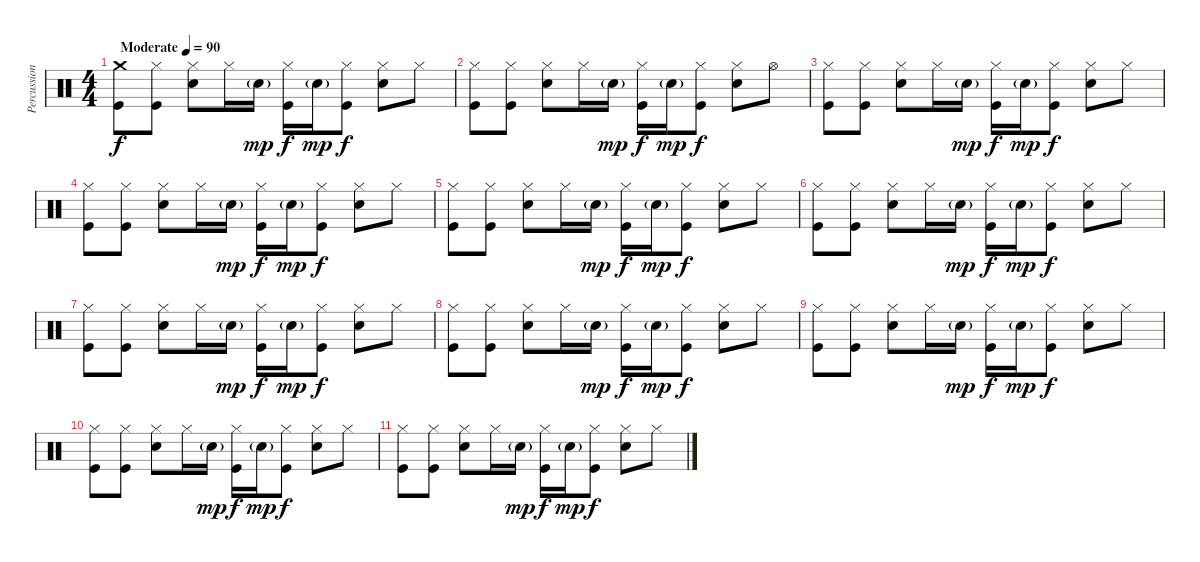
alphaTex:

\track ("Percussioni" "Percussion") {instrument percussion}
\staff {score}
\articulation defaults
\ts (4 4)
\tempo (90 "Moderate")
\clef neutral
\ks c
("Crash medium (hit)" "Kick (hit)").8{dy f} ("Hi-Hat (closed)" "Kick (hit)").8 ("Hi-Hat (closed)" "Electric Snare (hit)").8 "Hi-Hat (closed)".16 "Electric Snare (hit)"{g}.16{dy mp} ("Hi-Hat (closed)" "Kick (hit)").16{dy f} "Electric Snare (hit)"{g}.16{dy mp} ("Hi-Hat (closed)" "Kick (hit)").8{dy f} ("Hi-Hat (closed)" "Electric Snare (hit)").8 "Hi-Hat (closed)".8 |
("Hi-Hat (closed)" "Kick (hit)").8 ("Hi-Hat (closed)" "Kick (hit)").8 ("Hi-Hat (closed)" "Electric Snare (hit)").8 "Hi-Hat (closed)".16 "Electric Snare (hit)"{g}.16{dy mp} ("Hi-Hat (closed)" "Kick (hit)").16{dy f} "Electric Snare (hit)"{g}.16{dy mp} ("Hi-Hat (closed)" "Kick (hit)").8{dy f} ("Hi-Hat (closed)" "Electric Snare (hit)").8 "Hi-Hat (open)".8 |
("Hi-Hat (closed)" "Kick (hit)").8 ("Hi-Hat (closed)" "Kick (hit)").8 ("Hi-Hat (closed)" "Electric Snare (hit)").8 "Hi-Hat (closed)".16 "Electric Snare (hit)"{g}.16{dy mp} ("Hi-Hat (closed)" "Kick (hit)").16{dy f} "Electric Snare (hit)"{g}.16{dy mp} ("Hi-Hat (closed)" "Kick (hit)").8{dy f} ("Hi-Hat (closed)" "Electric Snare (hit)").8 "Hi-Hat (closed)".8 |
("Hi-Hat (closed)" "Kick (hit)").8 ("Hi-Hat (closed)" "Kick (hit)").8 ("Hi-Hat (closed)" "Electric Snare (hit)").8 "Hi-Hat (closed)".16 "Electric Snare (hit)"{g}.16{dy mp} ("Hi-Hat (closed)" "Kick (hit)").16{dy f} "Electric Snare (hit)"{g}.16{dy mp} ("Hi-Hat (closed)" "Kick (hit)").8{dy f} ("Hi-Hat (closed)" "Electric Snare (hit)").8 "Hi-Hat (closed)".8 |
("Hi-Hat (closed)" "Kick (hit)").8 ("Hi-Hat (closed)" "Kick (hit)").8 ("Hi-Hat (closed)" "Electric Snare (hit)").8 "Hi-Hat (closed)".16 "Electric Snare (hit)"{g}.16{dy mp} ("Hi-Hat (closed)" "Kick (hit)").16{dy f} "Electric Snare (hit)"{g}.16{dy mp} ("Hi-Hat (closed)" "Kick (hit)").8{dy f} ("Hi-Hat (closed)" "Electric Snare (hit)").8 "Hi-Hat (closed)".8 |
("Hi-Hat (closed)" "Kick (hit)").8 ("Hi-Hat (closed)" "Kick (hit)").8 ("Hi-Hat (closed)" "Electric Snare (hit)").8 "Hi-Hat (closed)".16 "Electric Snare (hit)"{g}.16{dy mp} ("Hi-Hat (closed)" "Kick (hit)").16{dy f} "Electric Snare (hit)"{g}.16{dy mp} ("Hi-Hat (closed)" "Kick (hit)").8{dy f} ("Hi-Hat (closed)" "Electric Snare (hit)").8 "Hi-Hat (closed)".8 |
("Hi-Hat (closed)" "Kick (hit)").8 ("Hi-Hat (closed)" "Kick (hit)").8 ("Hi-Hat (closed)" "Electric Snare (hit)").8 "Hi-Hat (closed)".16 "Electric Snare (hit)"{g}.16{dy mp} ("Hi-Hat (closed)" "Kick (hit)").16{dy f} "Electric Snare (hit)"{g}.16{dy mp} ("Hi-Hat (closed)" "Kick (hit)").8{dy f} ("Hi-Hat (closed)" "Electric Snare (hit)").8 "Hi-Hat (closed)".8 |
("Hi-Hat (closed)" "Kick (hit)").8 ("Hi-Hat (closed)" "Kick (hit)").8 ("Hi-Hat (closed)" "Electric Snare (hit)").8 "Hi-Hat (closed)".16 "Electric Snare (hit)"{g}.16{dy mp} ("Hi-Hat (closed)" "Kick (hit)").16{dy f} "Electric Snare (hit)"{g}.16{dy mp} ("Hi-Hat (closed)" "Kick (hit)").8{dy f} ("Hi-Hat (closed)" "Electric Snare (hit)").8 "Hi-Hat (closed)".8 |
("Hi-Hat (closed)" "Kick (hit)").8 ("Hi-Hat (closed)" "Kick (hit)").8 ("Hi-Hat (closed)" "Electric Snare (hit)").8 "Hi-Hat (closed)".16 "Electric Snare (hit)"{g}.16{dy mp} ("Hi-Hat (closed)" "Kick (hit)").16{dy f} "Electric Snare (hit)"{g}.16{dy mp} ("Hi-Hat (closed)" "Kick (hit)").8{dy f} ("Hi-Hat (closed)" "Electric Snare (hit)").8 "Hi-Hat (closed)".8 |
("Hi-Hat (closed)" "Kick (hit)").8 ("Hi-Hat (closed)" "Kick (hit)").8 ("Hi-Hat (closed)" "Electric Snare (hit)").8 "Hi-Hat (closed)".16 "Electric Snare (hit)"{g}.16{dy mp} ("Hi-Hat (closed)" "Kick (hit)").16{dy f} "Electric Snare (hit)"{g}.16{dy mp} ("Hi-Hat (closed)" "Kick (hit)").8{dy f} ("Hi-Hat (closed)" "Electric Snare (hit)").8 "Hi-Hat (closed)".8 |
("Hi-Hat (closed)" "Kick (hit)").8 ("Hi-Hat (closed)" "Kick (hit)").8 ("Hi-Hat (closed)" "Electric Snare (hit)").8 "Hi-Hat (closed)".16 "Electric Snare (hit)"{g}.16{dy mp} ("Hi-Hat (closed)" "Kick (hit)").16{dy f} "Electric Snare (hit)"{g}.16{dy mp} ("Hi-Hat (closed)" "Kick (hit)").8{dy f} ("Hi-Hat (closed)" "Electric Snare (hit)").8 "Hi-Hat (closed)".8
